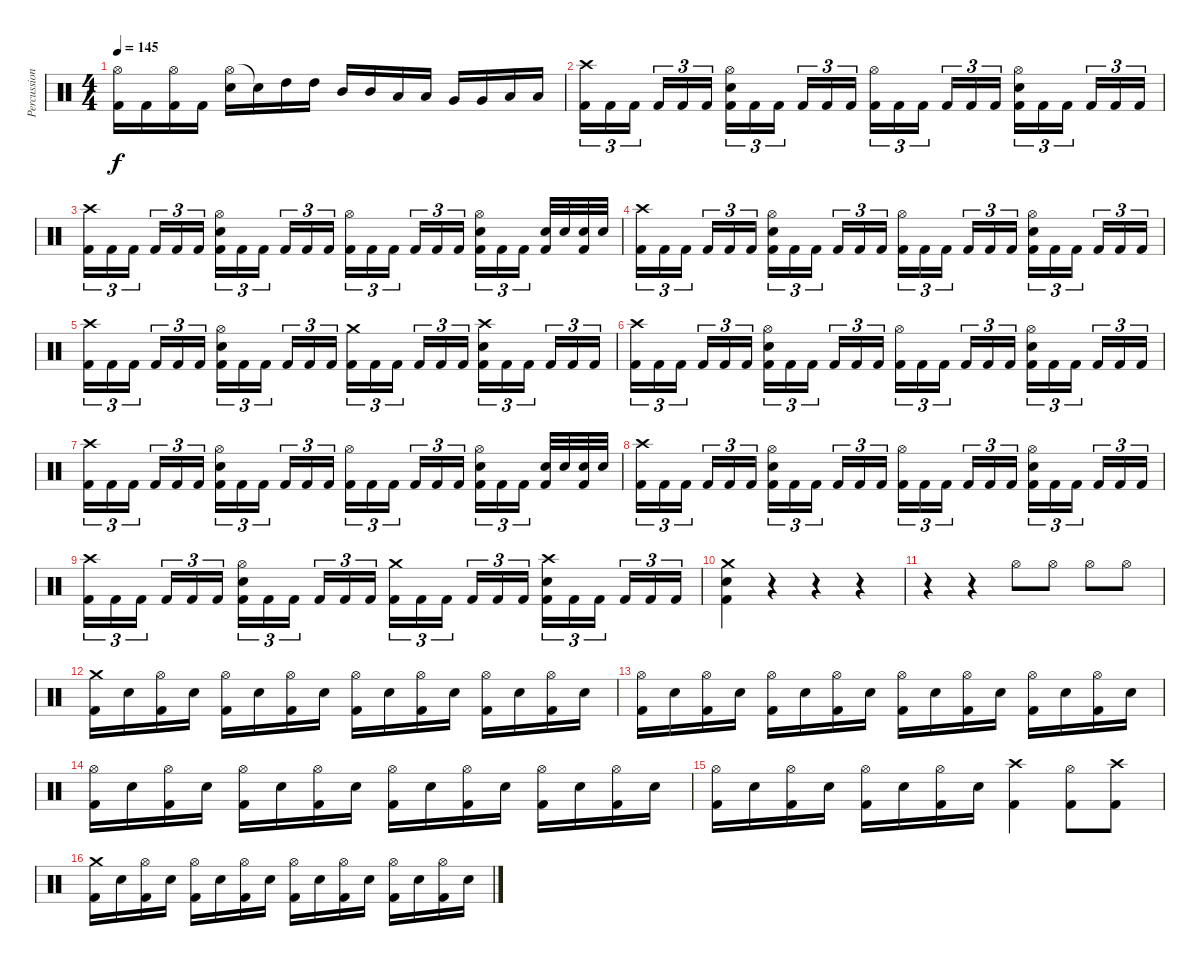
\track ("Percussions" "Percussion") {instrument percussion}
\staff {score}
\articulation defaults
\ts (4 4)
\tempo 145
\clef neutral
\ks c
("Hi-Hat (open)" "Kick (hit) 2").16{dy f} "Kick (hit) 2".16 ("Hi-Hat (open)" "Kick (hit) 2").16 "Kick (hit) 2".16 ("Hi-Hat (open)" "Electric Snare (hit)").16 "Snare (hit)"{t}.16 "High Tom (hit)".16 "High Tom (hit)".16 "Mid Tom (hit)".16 "Mid Tom (hit)".16 "Low Tom (hit)".16 "Low Tom (hit)".16 "Very Low Tom (hit)".16 "Very Low Tom (hit)".16 "Low Floor Tom (hit)".16 "Low Floor Tom (hit)".16 |
("Crash high (hit)" "Kick (hit) 2").16{tu (3 2)} "Kick (hit) 2".16{tu (3 2)} "Kick (hit) 2".16{tu (3 2) beam splitsecondary} "Kick (hit) 2".16{tu (3 2)} "Kick (hit) 2".16{tu (3 2)} "Kick (hit) 2".16{tu (3 2)} ("Hi-Hat (open)" "Electric Snare (hit)" "Kick (hit) 2").16{tu (3 2)} "Kick (hit) 2".16{tu (3 2)} "Kick (hit) 2".16{tu (3 2) beam splitsecondary} "Kick (hit) 2".16{tu (3 2)} "Kick (hit) 2".16{tu (3 2)} "Kick (hit) 2".16{tu (3 2)} ("Hi-Hat (open)" "Kick (hit) 2").16{tu (3 2)} "Kick (hit) 2".16{tu (3 2)} "Kick (hit) 2".16{tu (3 2) beam splitsecondary} "Kick (hit) 2".16{tu (3 2)} "Kick (hit) 2".16{tu (3 2)} "Kick (hit) 2".16{tu (3 2)} ("Hi-Hat (open)" "Electric Snare (hit)" "Kick (hit) 2").16{tu (3 2)} "Kick (hit) 2".16{tu (3 2)} "Kick (hit) 2".16{tu (3 2) beam splitsecondary} "Kick (hit) 2".16{tu (3 2)} "Kick (hit) 2".16{tu (3 2)} "Kick (hit) 2".16{tu (3 2)} |
("Crash high (hit)" "Kick (hit) 2").16{tu (3 2)} "Kick (hit) 2".16{tu (3 2)} "Kick (hit) 2".16{tu (3 2) beam splitsecondary} "Kick (hit) 2".16{tu (3 2)} "Kick (hit) 2".16{tu (3 2)} "Kick (hit) 2".16{tu (3 2)} ("Hi-Hat (open)" "Electric Snare (hit)" "Kick (hit) 2").16{tu (3 2)} "Kick (hit) 2".16{tu (3 2)} "Kick (hit) 2".16{tu (3 2) beam splitsecondary} "Kick (hit) 2".16{tu (3 2)} "Kick (hit) 2".16{tu (3 2)} "Kick (hit) 2".16{tu (3 2)} ("Hi-Hat (open)" "Kick (hit) 2").16{tu (3 2)} "Kick (hit) 2".16{tu (3 2)} "Kick (hit) 2".16{tu (3 2) beam splitsecondary} "Kick (hit) 2".16{tu (3 2)} "Kick (hit) 2".16{tu (3 2)} "Kick (hit) 2".16{tu (3 2)} ("Hi-Hat (open)" "Electric Snare (hit)" "Kick (hit) 2").16{tu (3 2)} "Kick (hit) 2".16{tu (3 2)} "Kick (hit) 2".16{tu (3 2) beam splitsecondary} ("Electric Snare (hit)" "Kick (hit) 2").32 "Electric Snare (hit)".32 ("Electric Snare (hit)" "Kick (hit) 2").32 "Electric Snare (hit)".32 |
("Crash high (hit)" "Kick (hit) 2").16{tu (3 2)} "Kick (hit) 2".16{tu (3 2)} "Kick (hit) 2".16{tu (3 2) beam splitsecondary} "Kick (hit) 2".16{tu (3 2)} "Kick (hit) 2".16{tu (3 2)} "Kick (hit) 2".16{tu (3 2)} ("Hi-Hat (open)" "Electric Snare (hit)" "Kick (hit) 2").16{tu (3 2)} "Kick (hit) 2".16{tu (3 2)} "Kick (hit) 2".16{tu (3 2) beam splitsecondary} "Kick (hit) 2".16{tu (3 2)} "Kick (hit) 2".16{tu (3 2)} "Kick (hit) 2".16{tu (3 2)} ("Hi-Hat (open)" "Kick (hit) 2").16{tu (3 2)} "Kick (hit) 2".16{tu (3 2)} "Kick (hit) 2".16{tu (3 2) beam splitsecondary} "Kick (hit) 2".16{tu (3 2)} "Kick (hit) 2".16{tu (3 2)} "Kick (hit) 2".16{tu (3 2)} ("Hi-Hat (open)" "Electric Snare (hit)" "Kick (hit) 2").16{tu (3 2)} "Kick (hit) 2".16{tu (3 2)} "Kick (hit) 2".16{tu (3 2) beam splitsecondary} "Kick (hit) 2".16{tu (3 2)} "Kick (hit) 2".16{tu (3 2)} "Kick (hit) 2".16{tu (3 2)} |
("Crash high (hit)" "Kick (hit) 2").16{tu (3 2)} "Kick (hit) 2".16{tu (3 2)} "Kick (hit) 2".16{tu (3 2) beam splitsecondary} "Kick (hit) 2".16{tu (3 2)} "Kick (hit) 2".16{tu (3 2)} "Kick (hit) 2".16{tu (3 2)} ("Hi-Hat (open)" "Electric Snare (hit)" "Kick (hit) 2").16{tu (3 2)} "Kick (hit) 2".16{tu (3 2)} "Kick (hit) 2".16{tu (3 2) beam splitsecondary} "Kick (hit) 2".16{tu (3 2)} "Kick (hit) 2".16{tu (3 2)} "Kick (hit) 2".16{tu (3 2)} ("Crash medium (hit)" "Kick (hit) 2").16{tu (3 2)} "Kick (hit) 2".16{tu (3 2)} "Kick (hit) 2".16{tu (3 2) beam splitsecondary} "Kick (hit) 2".16{tu (3 2)} "Kick (hit) 2".16{tu (3 2)} "Kick (hit) 2".16{tu (3 2)} ("Crash high (hit)" "Electric Snare (hit)" "Kick (hit) 2").16{tu (3 2)} "Kick (hit) 2".16{tu (3 2)} "Kick (hit) 2".16{tu (3 2) beam splitsecondary} "Kick (hit) 2".16{tu (3 2)} "Kick (hit) 2".16{tu (3 2)} "Kick (hit) 2".16{tu (3 2)} |
("Crash high (hit)" "Kick (hit) 2").16{tu (3 2)} "Kick (hit) 2".16{tu (3 2)} "Kick (hit) 2".16{tu (3 2) beam splitsecondary} "Kick (hit) 2".16{tu (3 2)} "Kick (hit) 2".16{tu (3 2)} "Kick (hit) 2".16{tu (3 2)} ("Hi-Hat (open)" "Electric Snare (hit)" "Kick (hit) 2").16{tu (3 2)} "Kick (hit) 2".16{tu (3 2)} "Kick (hit) 2".16{tu (3 2) beam splitsecondary} "Kick (hit) 2".16{tu (3 2)} "Kick (hit) 2".16{tu (3 2)} "Kick (hit) 2".16{tu (3 2)} ("Hi-Hat (open)" "Kick (hit) 2").16{tu (3 2)} "Kick (hit) 2".16{tu (3 2)} "Kick (hit) 2".16{tu (3 2) beam splitsecondary} "Kick (hit) 2".16{tu (3 2)} "Kick (hit) 2".16{tu (3 2)} "Kick (hit) 2".16{tu (3 2)} ("Hi-Hat (open)" "Electric Snare (hit)" "Kick (hit) 2").16{tu (3 2)} "Kick (hit) 2".16{tu (3 2)} "Kick (hit) 2".16{tu (3 2) beam splitsecondary} "Kick (hit) 2".16{tu (3 2)} "Kick (hit) 2".16{tu (3 2)} "Kick (hit) 2".16{tu (3 2)} |
("Crash high (hit)" "Kick (hit) 2").16{tu (3 2)} "Kick (hit) 2".16{tu (3 2)} "Kick (hit) 2".16{tu (3 2) beam splitsecondary} "Kick (hit) 2".16{tu (3 2)} "Kick (hit) 2".16{tu (3 2)} "Kick (hit) 2".16{tu (3 2)} ("Hi-Hat (open)" "Electric Snare (hit)" "Kick (hit) 2").16{tu (3 2)} "Kick (hit) 2".16{tu (3 2)} "Kick (hit) 2".16{tu (3 2) beam splitsecondary} "Kick (hit) 2".16{tu (3 2)} "Kick (hit) 2".16{tu (3 2)} "Kick (hit) 2".16{tu (3 2)} ("Hi-Hat (open)" "Kick (hit) 2").16{tu (3 2)} "Kick (hit) 2".16{tu (3 2)} "Kick (hit) 2".16{tu (3 2) beam splitsecondary} "Kick (hit) 2".16{tu (3 2)} "Kick (hit) 2".16{tu (3 2)} "Kick (hit) 2".16{tu (3 2)} ("Hi-Hat (open)" "Electric Snare (hit)" "Kick (hit) 2").16{tu (3 2)} "Kick (hit) 2".16{tu (3 2)} "Kick (hit) 2".16{tu (3 2) beam splitsecondary} ("Electric Snare (hit)" "Kick (hit) 2").32 "Electric Snare (hit)".32 ("Electric Snare (hit)" "Kick (hit) 2").32 "Electric Snare (hit)".32 |
("Crash high (hit)" "Kick (hit) 2").16{tu (3 2)} "Kick (hit) 2".16{tu (3 2)} "Kick (hit) 2".16{tu (3 2) beam splitsecondary} "Kick (hit) 2".16{tu (3 2)} "Kick (hit) 2".16{tu (3 2)} "Kick (hit) 2".16{tu (3 2)} ("Hi-Hat (open)" "Electric Snare (hit)" "Kick (hit) 2").16{tu (3 2)} "Kick (hit) 2".16{tu (3 2)} "Kick (hit) 2".16{tu (3 2) beam splitsecondary} "Kick (hit) 2".16{tu (3 2)} "Kick (hit) 2".16{tu (3 2)} "Kick (hit) 2".16{tu (3 2)} ("Hi-Hat (open)" "Kick (hit) 2").16{tu (3 2)} "Kick (hit) 2".16{tu (3 2)} "Kick (hit) 2".16{tu (3 2) beam splitsecondary} "Kick (hit) 2".16{tu (3 2)} "Kick (hit) 2".16{tu (3 2)} "Kick (hit) 2".16{tu (3 2)} ("Hi-Hat (open)" "Electric Snare (hit)" "Kick (hit) 2").16{tu (3 2)} "Kick (hit) 2".16{tu (3 2)} "Kick (hit) 2".16{tu (3 2) beam splitsecondary} "Kick (hit) 2".16{tu (3 2)} "Kick (hit) 2".16{tu (3 2)} "Kick (hit) 2".16{tu (3 2)} |
("Crash high (hit)" "Kick (hit) 2").16{tu (3 2)} "Kick (hit) 2".16{tu (3 2)} "Kick (hit) 2".16{tu (3 2) beam splitsecondary} "Kick (hit) 2".16{tu (3 2)} "Kick (hit) 2".16{tu (3 2)} "Kick (hit) 2".16{tu (3 2)} ("Hi-Hat (open)" "Electric Snare (hit)" "Kick (hit) 2").16{tu (3 2)} "Kick (hit) 2".16{tu (3 2)} "Kick (hit) 2".16{tu (3 2) beam splitsecondary} "Kick (hit) 2".16{tu (3 2)} "Kick (hit) 2".16{tu (3 2)} "Kick (hit) 2".16{tu (3 2)} ("Crash medium (hit)" "Kick (hit) 2").16{tu (3 2)} "Kick (hit) 2".16{tu (3 2)} "Kick (hit) 2".16{tu (3 2) beam splitsecondary} "Kick (hit) 2".16{tu (3 2)} "Kick (hit) 2".16{tu (3 2)} "Kick (hit) 2".16{tu (3 2)} ("Crash high (hit)" "Electric Snare (hit)" "Kick (hit) 2").16{tu (3 2)} "Kick (hit) 2".16{tu (3 2)} "Kick (hit) 2".16{tu (3 2) beam splitsecondary} "Kick (hit) 2".16{tu (3 2)} "Kick (hit) 2".16{tu (3 2)} "Kick (hit) 2".16{tu (3 2)} |
("Crash medium (hit)" "Electric Snare (hit)" "Kick (hit) 2").4 r.4 r.4 r.4 |
r.4 r.4 "Hi-Hat (open)".8 "Hi-Hat (open)".8 "Hi-Hat (open)".8 "Hi-Hat (open)".8 |
("Crash medium (hit)" "Kick (hit) 2").16 "Electric Snare (hit)".16 ("Hi-Hat (open)" "Kick (hit) 2").16 "Electric Snare (hit)".16 ("Hi-Hat (open)" "Kick (hit) 2").16 "Electric Snare (hit)".16 ("Hi-Hat (open)" "Kick (hit) 2").16 "Electric Snare (hit)".16 ("Hi-Hat (open)" "Kick (hit) 2").16 "Electric Snare (hit)".16 ("Hi-Hat (open)" "Kick (hit) 2").16 "Electric Snare (hit)".16 ("Hi-Hat (open)" "Kick (hit) 2").16 "Electric Snare (hit)".16 ("Hi-Hat (open)" "Kick (hit) 2").16 "Electric Snare (hit)".16 |
("Hi-Hat (open)" "Kick (hit) 2").16 "Electric Snare (hit)".16 ("Hi-Hat (open)" "Kick (hit) 2").16 "Electric Snare (hit)".16 ("Hi-Hat (open)" "Kick (hit) 2").16 "Electric Snare (hit)".16 ("Hi-Hat (open)" "Kick (hit) 2").16 "Electric Snare (hit)".16 ("Hi-Hat (open)" "Kick (hit) 2").16 "Electric Snare (hit)".16 ("Hi-Hat (open)" "Kick (hit) 2").16 "Electric Snare (hit)".16 ("Hi-Hat (open)" "Kick (hit) 2").16 "Electric Snare (hit)".16 ("Hi-Hat (open)" "Kick (hit) 2").16 "Electric Snare (hit)".16 |
("Hi-Hat (open)" "Kick (hit) 2").16 "Electric Snare (hit)".16 ("Hi-Hat (open)" "Kick (hit) 2").16 "Electric Snare (hit)".16 ("Hi-Hat (open)" "Kick (hit) 2").16 "Electric Snare (hit)".16 ("Hi-Hat (open)" "Kick (hit) 2").16 "Electric Snare (hit)".16 ("Hi-Hat (open)" "Kick (hit) 2").16 "Electric Snare (hit)".16 ("Hi-Hat (open)" "Kick (hit) 2").16 "Electric Snare (hit)".16 ("Hi-Hat (open)" "Kick (hit) 2").16 "Electric Snare (hit)".16 ("Hi-Hat (open)" "Kick (hit) 2").16 "Electric Snare (hit)".16 |
("Hi-Hat (open)" "Kick (hit) 2").16 "Electric Snare (hit)".16 ("Hi-Hat (open)" "Kick (hit) 2").16 "Electric Snare (hit)".16 ("Hi-Hat (open)" "Kick (hit) 2").16 "Electric Snare (hit)".16 ("Hi-Hat (open)" "Kick (hit) 2").16 "Electric Snare (hit)".16 ("Crash high (hit)" "Kick (hit) 2").4 ("Hi-Hat (open)" "Kick (hit) 2").8 ("Crash high (hit)" "Kick (hit) 2").8 |
("Crash medium (hit)" "Kick (hit) 2").16 "Electric Snare (hit)".16 ("Hi-Hat (open)" "Kick (hit) 2").16 "Electric Snare (hit)".16 ("Hi-Hat (open)" "Kick (hit) 2").16 "Electric Snare (hit)".16 ("Hi-Hat (open)" "Kick (hit) 2").16 "Electric Snare (hit)".16 ("Hi-Hat (open)" "Kick (hit) 2").16 "Electric Snare (hit)".16 ("Hi-Hat (open)" "Kick (hit) 2").16 "Electric Snare (hit)".16 ("Hi-Hat (open)" "Kick (hit) 2").16 "Electric Snare (hit)".16 ("Hi-Hat (open)" "Kick (hit) 2").16 "Electric Snare (hit)".16
